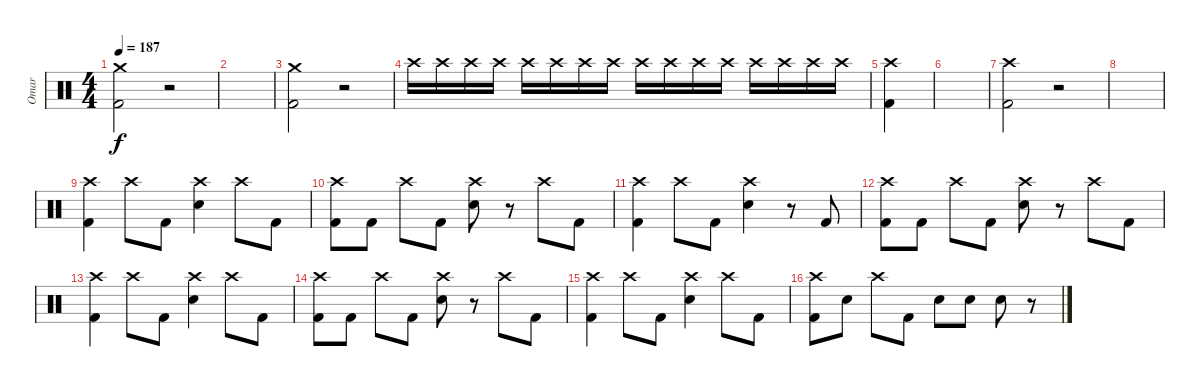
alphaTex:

\track ("Omar" "Omar") {instrument percussion}
\staff {score}
\articulation defaults
\ts (4 4)
\tempo 187
\clef neutral
\ks c
("Crash medium (hit)" "Kick (hit) 2").2{dy f} r.2 |
|
("Crash medium (hit)" "Kick (hit) 2").2 r.2 |
"Crash high (hit)".16{volume 0} "Crash high (hit)".16{volume 16} "Crash high (hit)".16 "Crash high (hit)".16 "Crash high (hit)".16 "Crash high (hit)".16 "Crash high (hit)".16 "Crash high (hit)".16 "Crash high (hit)".16 "Crash high (hit)".16 "Crash high (hit)".16 "Crash high (hit)".16 "Crash high (hit)".16 "Crash high (hit)".16 "Crash high (hit)".16 "Crash high (hit)".16 |
("Crash high (hit)" "Kick (hit) 2").4 |
|
("Crash high (hit)" "Kick (hit) 2").2 r.2 |
|
("Crash high (hit)" "Kick (hit) 2").4 "Crash high (hit)".8 "Kick (hit) 2".8 ("Crash high (hit)" "Snare (hit) 2").4 "Crash high (hit)".8 "Kick (hit) 2".8 |
("Crash high (hit)" "Kick (hit) 2").8 "Kick (hit) 2".8 "Crash high (hit)".8 "Kick (hit) 2".8 ("Crash high (hit)" "Snare (hit) 2").8 r.8 "Crash high (hit)".8 "Kick (hit) 2".8 |
("Crash high (hit)" "Kick (hit) 2").4 "Crash high (hit)".8 "Kick (hit) 2".8 ("Crash high (hit)" "Snare (hit) 2").4 r.8 "Kick (hit) 2".8 |
("Crash high (hit)" "Kick (hit) 2").8 "Kick (hit) 2".8 "Crash high (hit)".8 "Kick (hit) 2".8 ("Crash high (hit)" "Snare (hit) 2").8 r.8 "Crash high (hit)".8 "Kick (hit) 2".8 |
("Crash high (hit)" "Kick (hit) 2").4 "Crash high (hit)".8 "Kick (hit) 2".8 ("Crash high (hit)" "Snare (hit) 2").4 "Crash high (hit)".8 "Kick (hit) 2".8 |
("Crash high (hit)" "Kick (hit) 2").8 "Kick (hit) 2".8 "Crash high (hit)".8 "Kick (hit) 2".8 ("Crash high (hit)" "Snare (hit) 2").8 r.8 "Crash high (hit)".8 "Kick (hit) 2".8 |
("Crash high (hit)" "Kick (hit) 2").4 "Crash high (hit)".8 "Kick (hit) 2".8 ("Crash high (hit)" "Snare (hit) 2").4 "Crash high (hit)".8 "Kick (hit) 2".8 |
("Crash high (hit)" "Kick (hit) 2").8 "Snare (hit) 2".8 "Crash high (hit)".8 "Kick (hit) 2".8 "Snare (hit) 2".8 "Snare (hit) 2".8 "Snare (hit) 2".8 r.8
